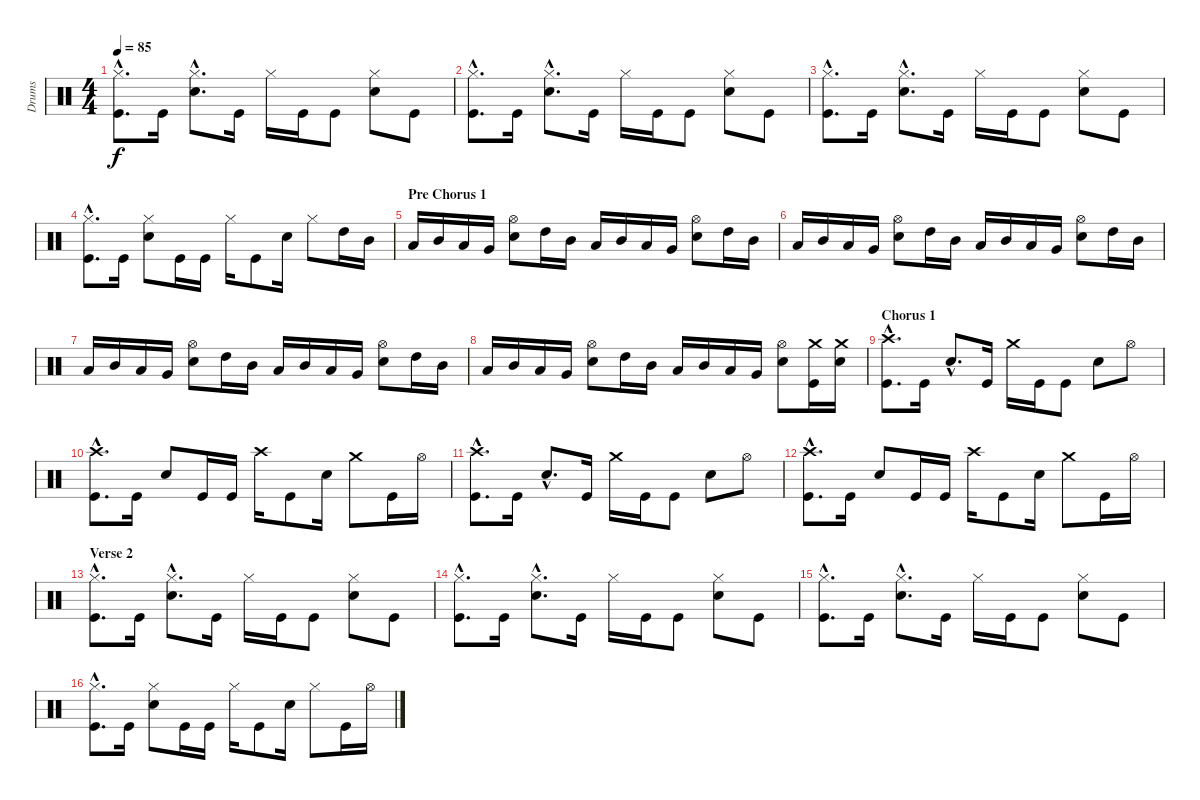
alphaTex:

\track ("Drums" "Drums") {instrument percussion}
\staff {score}
\articulation defaults
\ts (4 4)
\tempo 85
\clef neutral
\ks c
("Hi-Hat (closed)"{hac} "Kick (hit)"{hac}).8{d dy f} "Kick (hit)".16 ("Hi-Hat (closed)"{hac} "Electric Snare (hit)"{hac}).8{d} "Kick (hit)".16 "Hi-Hat (closed)".16 "Kick (hit)".16 "Kick (hit)".8 ("Hi-Hat (closed)" "Electric Snare (hit)").8 "Kick (hit)".8 |
("Hi-Hat (closed)"{hac} "Kick (hit)"{hac}).8{d} "Kick (hit)".16 ("Hi-Hat (closed)"{hac} "Electric Snare (hit)"{hac}).8{d} "Kick (hit)".16 "Hi-Hat (closed)".16 "Kick (hit)".16 "Kick (hit)".8 ("Hi-Hat (closed)" "Electric Snare (hit)").8 "Kick (hit)".8 |
("Hi-Hat (closed)"{hac} "Kick (hit)"{hac}).8{d} "Kick (hit)".16 ("Hi-Hat (closed)"{hac} "Electric Snare (hit)"{hac}).8{d} "Kick (hit)".16 "Hi-Hat (closed)".16 "Kick (hit)".16 "Kick (hit)".8 ("Hi-Hat (closed)" "Electric Snare (hit)").8 "Kick (hit)".8 |
("Hi-Hat (closed)"{hac} "Kick (hit)"{hac}).8{d} "Kick (hit)".16 ("Hi-Hat (closed)" "Electric Snare (hit)").8 "Kick (hit)".16 "Kick (hit)".16 "Hi-Hat (closed)".16 "Kick (hit)".8 "Electric Snare (hit)".16 "Hi-Hat (closed)".8 "High Tom (hit)".16 "Mid Tom (hit)".16 |
\section ("" "Pre Chorus 1")
"Low Tom (hit)".16 "Mid Tom (hit)".16 "Low Tom (hit)".16 "Very Low Tom (hit)".16 ("Hi-Hat (open)" "Electric Snare (hit)").8 "High Tom (hit)".16 "Mid Tom (hit)".16 "Low Tom (hit)".16 "Mid Tom (hit)".16 "Low Tom (hit)".16 "Very Low Tom (hit)".16 ("Hi-Hat (open)" "Electric Snare (hit)").8 "High Tom (hit)".16 "Mid Tom (hit)".16 |
"Low Tom (hit)".16 "Mid Tom (hit)".16 "Low Tom (hit)".16 "Very Low Tom (hit)".16 ("Hi-Hat (open)" "Electric Snare (hit)").8 "High Tom (hit)".16 "Mid Tom (hit)".16 "Low Tom (hit)".16 "Mid Tom (hit)".16 "Low Tom (hit)".16 "Very Low Tom (hit)".16 ("Hi-Hat (open)" "Electric Snare (hit)").8 "High Tom (hit)".16 "Mid Tom (hit)".16 |
"Low Tom (hit)".16 "Mid Tom (hit)".16 "Low Tom (hit)".16 "Very Low Tom (hit)".16 ("Hi-Hat (open)" "Electric Snare (hit)").8 "High Tom (hit)".16 "Mid Tom (hit)".16 "Low Tom (hit)".16 "Mid Tom (hit)".16 "Low Tom (hit)".16 "Very Low Tom (hit)".16 ("Hi-Hat (open)" "Electric Snare (hit)").8 "High Tom (hit)".16 "Mid Tom (hit)".16 |
"Low Tom (hit)".16 "Mid Tom (hit)".16 "Low Tom (hit)".16 "Very Low Tom (hit)".16 ("Hi-Hat (open)" "Electric Snare (hit)").8 "High Tom (hit)".16 "Mid Tom (hit)".16 "Low Tom (hit)".16 "Mid Tom (hit)".16 "Low Tom (hit)".16 "Very Low Tom (hit)".16 ("Hi-Hat (open)" "Electric Snare (hit)").8 ("Crash medium (hit)" "Kick (hit)").16 ("Crash medium (hit)" "Electric Snare (hit)").16 |
\section ("" "Chorus 1")
("Crash high (hit)"{hac} "Kick (hit)"{hac}).8{d} "Kick (hit)".16 "Electric Snare (hit)"{hac}.8{d} "Kick (hit)".16 "Crash medium (hit)".16 "Kick (hit)".16 "Kick (hit)".8 "Electric Snare (hit)".8 "Hi-Hat (open)".8 |
("Crash high (hit)"{hac} "Kick (hit)"{hac}).8{d} "Kick (hit)".16 "Electric Snare (hit)".8 "Kick (hit)".16 "Kick (hit)".16 "Crash high (hit)".16 "Kick (hit)".8 "Electric Snare (hit)".16 "Crash medium (hit)".8 "Kick (hit)".16 "Hi-Hat (open)".16 |
("Crash high (hit)"{hac} "Kick (hit)"{hac}).8{d} "Kick (hit)".16 "Electric Snare (hit)"{hac}.8{d} "Kick (hit)".16 "Crash medium (hit)".16 "Kick (hit)".16 "Kick (hit)".8 "Electric Snare (hit)".8 "Hi-Hat (open)".8 |
("Crash high (hit)"{hac} "Kick (hit)"{hac}).8{d} "Kick (hit)".16 "Electric Snare (hit)".8 "Kick (hit)".16 "Kick (hit)".16 "Crash high (hit)".16 "Kick (hit)".8 "Electric Snare (hit)".16 "Crash medium (hit)".8 "Kick (hit)".16 "Hi-Hat (open)".16 |
\section ("" "Verse 2")
("Hi-Hat (closed)"{hac} "Kick (hit)"{hac}).8{d} "Kick (hit)".16 ("Hi-Hat (closed)"{hac} "Electric Snare (hit)"{hac}).8{d} "Kick (hit)".16 "Hi-Hat (closed)".16 "Kick (hit)".16 "Kick (hit)".8 ("Hi-Hat (closed)" "Electric Snare (hit)").8 "Kick (hit)".8 |
("Hi-Hat (closed)"{hac} "Kick (hit)"{hac}).8{d} "Kick (hit)".16 ("Hi-Hat (closed)"{hac} "Electric Snare (hit)"{hac}).8{d} "Kick (hit)".16 "Hi-Hat (closed)".16 "Kick (hit)".16 "Kick (hit)".8 ("Hi-Hat (closed)" "Electric Snare (hit)").8 "Kick (hit)".8 |
("Hi-Hat (closed)"{hac} "Kick (hit)"{hac}).8{d} "Kick (hit)".16 ("Hi-Hat (closed)"{hac} "Electric Snare (hit)"{hac}).8{d} "Kick (hit)".16 "Hi-Hat (closed)".16 "Kick (hit)".16 "Kick (hit)".8 ("Hi-Hat (closed)" "Electric Snare (hit)").8 "Kick (hit)".8 |
("Hi-Hat (closed)"{hac} "Kick (hit)"{hac}).8{d} "Kick (hit)".16 ("Hi-Hat (closed)" "Electric Snare (hit)").8 "Kick (hit)".16 "Kick (hit)".16 "Hi-Hat (closed)".16 "Kick (hit)".8 "Electric Snare (hit)".16 "Hi-Hat (closed)".8 "Kick (hit)".16 "Hi-Hat (open)".16
